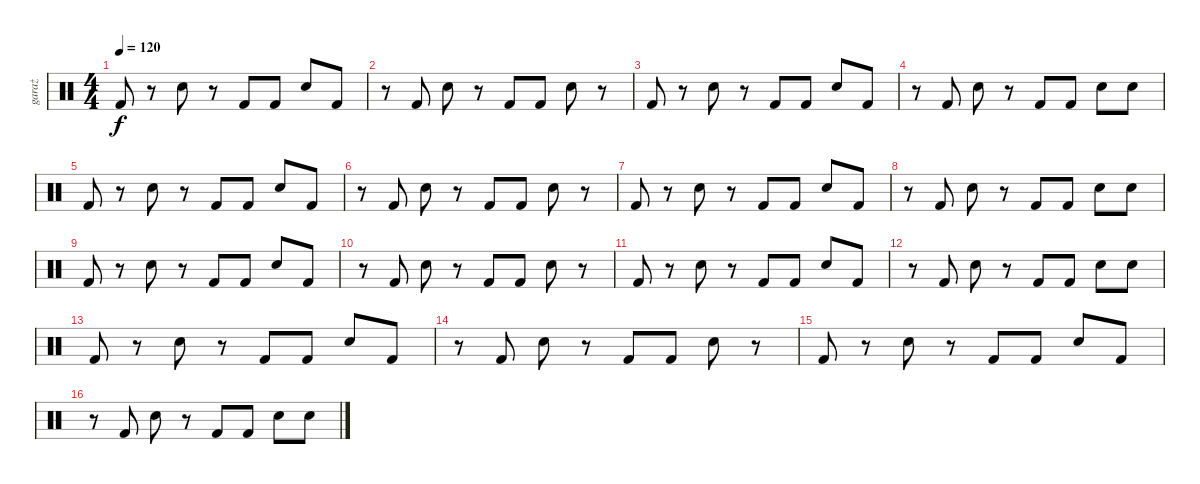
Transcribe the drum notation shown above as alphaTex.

\track ("garaż" "garaż") {instrument percussion}
\staff {score}
\articulation defaults
\ts (4 4)
\tempo 120
\clef neutral
\ks c "Kick (hit) 2".8{dy f}
r.8 "Snare (hit) 2".8 r.8 "Kick (hit) 2".8 "Kick (hit) 2".8 "Snare (hit) 2".8 "Kick (hit) 2".8 |
r.8 "Kick (hit) 2".8 "Snare (hit) 2".8 r.8 "Kick (hit) 2".8 "Kick (hit) 2".8 "Snare (hit) 2".8 r.8 |
"Kick (hit) 2".8 r.8 "Snare (hit) 2".8 r.8 "Kick (hit) 2".8 "Kick (hit) 2".8 "Snare (hit) 2".8 "Kick (hit) 2".8 |
r.8 "Kick (hit) 2".8 "Snare (hit) 2".8 r.8 "Kick (hit) 2".8 "Kick (hit) 2".8 "Snare (hit) 2".8 "Snare (hit) 2".8 |
"Kick (hit) 2".8 r.8 "Snare (hit) 2".8 r.8 "Kick (hit) 2".8 "Kick (hit) 2".8 "Snare (hit) 2".8 "Kick (hit) 2".8 |
r.8 "Kick (hit) 2".8 "Snare (hit) 2".8 r.8 "Kick (hit) 2".8 "Kick (hit) 2".8 "Snare (hit) 2".8 r.8 |
"Kick (hit) 2".8 r.8 "Snare (hit) 2".8 r.8 "Kick (hit) 2".8 "Kick (hit) 2".8 "Snare (hit) 2".8 "Kick (hit) 2".8 |
r.8 "Kick (hit) 2".8 "Snare (hit) 2".8 r.8 "Kick (hit) 2".8 "Kick (hit) 2".8 "Snare (hit) 2".8 "Snare (hit) 2".8 |
"Kick (hit) 2".8 r.8 "Snare (hit) 2".8 r.8 "Kick (hit) 2".8 "Kick (hit) 2".8 "Snare (hit) 2".8 "Kick (hit) 2".8 |
r.8 "Kick (hit) 2".8 "Snare (hit) 2".8 r.8 "Kick (hit) 2".8 "Kick (hit) 2".8 "Snare (hit) 2".8 r.8 |
"Kick (hit) 2".8 r.8 "Snare (hit) 2".8 r.8 "Kick (hit) 2".8 "Kick (hit) 2".8 "Snare (hit) 2".8 "Kick (hit) 2".8 |
r.8 "Kick (hit) 2".8 "Snare (hit) 2".8 r.8 "Kick (hit) 2".8 "Kick (hit) 2".8 "Snare (hit) 2".8 "Snare (hit) 2".8 |
"Kick (hit) 2".8 r.8 "Snare (hit) 2".8 r.8 "Kick (hit) 2".8 "Kick (hit) 2".8 "Snare (hit) 2".8 "Kick (hit) 2".8 |
r.8 "Kick (hit) 2".8 "Snare (hit) 2".8 r.8 "Kick (hit) 2".8 "Kick (hit) 2".8 "Snare (hit) 2".8 r.8 |
"Kick (hit) 2".8 r.8 "Snare (hit) 2".8 r.8 "Kick (hit) 2".8 "Kick (hit) 2".8 "Snare (hit) 2".8 "Kick (hit) 2".8 |
r.8 "Kick (hit) 2".8 "Snare (hit) 2".8 r.8 "Kick (hit) 2".8 "Kick (hit) 2".8 "Snare (hit) 2".8 "Snare (hit) 2".8
